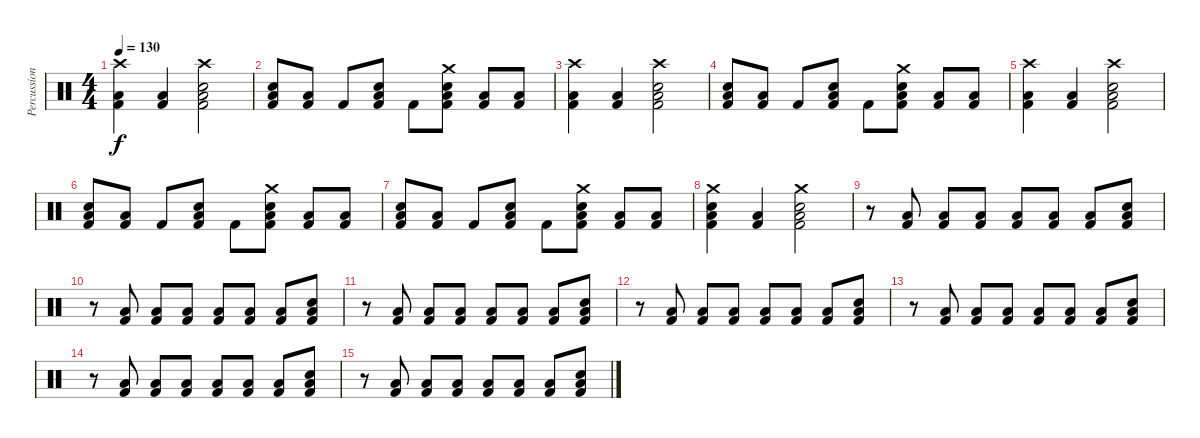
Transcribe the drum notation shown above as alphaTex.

\track ("Percussion" "Percussion") {instrument percussion}
\staff {score}
\articulation defaults
\ts (4 4)
\tempo 130
\clef neutral
\ks c
("Crash high (hit)" "Low Tom (hit)" "Kick (hit) 2").4{dy f} ("Low Tom (hit)" "Kick (hit) 2").4 ("Crash high (hit)" "Electric Snare (hit)" "Low Tom (hit)" "Kick (hit) 2").2 |
("Electric Snare (hit)" "Low Tom (hit)" "Kick (hit) 2").8 ("Low Tom (hit)" "Kick (hit) 2").8 "Kick (hit) 2".8 ("Electric Snare (hit)" "Low Tom (hit)" "Kick (hit) 2").8 "Kick (hit) 2".8 ("Crash medium (hit)" "Electric Snare (hit)" "Low Tom (hit)" "Kick (hit) 2").8 ("Low Tom (hit)" "Kick (hit) 2").8 ("Low Tom (hit)" "Kick (hit) 2").8 |
("Crash high (hit)" "Low Tom (hit)" "Kick (hit) 2").4 ("Low Tom (hit)" "Kick (hit) 2").4 ("Crash high (hit)" "Electric Snare (hit)" "Low Tom (hit)" "Kick (hit) 2").2 |
("Electric Snare (hit)" "Low Tom (hit)" "Kick (hit) 2").8 ("Low Tom (hit)" "Kick (hit) 2").8 "Kick (hit) 2".8 ("Electric Snare (hit)" "Low Tom (hit)" "Kick (hit) 2").8 "Kick (hit) 2".8 ("Crash medium (hit)" "Electric Snare (hit)" "Low Tom (hit)" "Kick (hit) 2").8 ("Low Tom (hit)" "Kick (hit) 2").8 ("Low Tom (hit)" "Kick (hit) 2").8 |
("Crash high (hit)" "Low Tom (hit)" "Kick (hit) 2").4 ("Low Tom (hit)" "Kick (hit) 2").4 ("Crash high (hit)" "Electric Snare (hit)" "Low Tom (hit)" "Kick (hit) 2").2 |
("Electric Snare (hit)" "Low Tom (hit)" "Kick (hit) 2").8 ("Low Tom (hit)" "Kick (hit) 2").8 "Kick (hit) 2".8 ("Electric Snare (hit)" "Low Tom (hit)" "Kick (hit) 2").8 "Kick (hit) 2".8 ("Crash medium (hit)" "Electric Snare (hit)" "Low Tom (hit)" "Kick (hit) 2").8 ("Low Tom (hit)" "Kick (hit) 2").8 ("Low Tom (hit)" "Kick (hit) 2").8 |
("Electric Snare (hit)" "Low Tom (hit)" "Kick (hit) 2").8 ("Low Tom (hit)" "Kick (hit) 2").8 "Kick (hit) 2".8 ("Electric Snare (hit)" "Low Tom (hit)" "Kick (hit) 2").8 "Kick (hit) 2".8 ("Crash medium (hit)" "Electric Snare (hit)" "Low Tom (hit)" "Kick (hit) 2").8 ("Low Tom (hit)" "Kick (hit) 2").8 ("Low Tom (hit)" "Kick (hit) 2").8 |
("Crash medium (hit)" "Electric Snare (hit)" "Low Tom (hit)" "Kick (hit) 2").4 ("Low Tom (hit)" "Kick (hit) 2").4 ("Crash medium (hit)" "Electric Snare (hit)" "Low Tom (hit)" "Kick (hit) 2").2 |
r.8 ("Low Tom (hit)" "Kick (hit) 2").8 ("Low Tom (hit)" "Kick (hit) 2").8 ("Low Tom (hit)" "Kick (hit) 2").8 ("Low Tom (hit)" "Kick (hit) 2").8 ("Low Tom (hit)" "Kick (hit) 2").8 ("Low Tom (hit)" "Kick (hit) 2").8 ("Snare (hit) 2" "Low Tom (hit)" "Kick (hit) 2").8 |
r.8 ("Low Tom (hit)" "Kick (hit) 2").8 ("Low Tom (hit)" "Kick (hit) 2").8 ("Low Tom (hit)" "Kick (hit) 2").8 ("Low Tom (hit)" "Kick (hit) 2").8 ("Low Tom (hit)" "Kick (hit) 2").8 ("Low Tom (hit)" "Kick (hit) 2").8 ("Snare (hit) 2" "Low Tom (hit)" "Kick (hit) 2").8 |
r.8 ("Low Tom (hit)" "Kick (hit) 2").8 ("Low Tom (hit)" "Kick (hit) 2").8 ("Low Tom (hit)" "Kick (hit) 2").8 ("Low Tom (hit)" "Kick (hit) 2").8 ("Low Tom (hit)" "Kick (hit) 2").8 ("Low Tom (hit)" "Kick (hit) 2").8 ("Snare (hit) 2" "Low Tom (hit)" "Kick (hit) 2").8 |
r.8 ("Low Tom (hit)" "Kick (hit) 2").8 ("Low Tom (hit)" "Kick (hit) 2").8 ("Low Tom (hit)" "Kick (hit) 2").8 ("Low Tom (hit)" "Kick (hit) 2").8 ("Low Tom (hit)" "Kick (hit) 2").8 ("Low Tom (hit)" "Kick (hit) 2").8 ("Snare (hit) 2" "Low Tom (hit)" "Kick (hit) 2").8 |
r.8 ("Low Tom (hit)" "Kick (hit) 2").8 ("Low Tom (hit)" "Kick (hit) 2").8 ("Low Tom (hit)" "Kick (hit) 2").8 ("Low Tom (hit)" "Kick (hit) 2").8 ("Low Tom (hit)" "Kick (hit) 2").8 ("Low Tom (hit)" "Kick (hit) 2").8 ("Snare (hit) 2" "Low Tom (hit)" "Kick (hit) 2").8 |
r.8 ("Low Tom (hit)" "Kick (hit) 2").8 ("Low Tom (hit)" "Kick (hit) 2").8 ("Low Tom (hit)" "Kick (hit) 2").8 ("Low Tom (hit)" "Kick (hit) 2").8 ("Low Tom (hit)" "Kick (hit) 2").8 ("Low Tom (hit)" "Kick (hit) 2").8 ("Snare (hit) 2" "Low Tom (hit)" "Kick (hit) 2").8 |
r.8 ("Low Tom (hit)" "Kick (hit) 2").8 ("Low Tom (hit)" "Kick (hit) 2").8 ("Low Tom (hit)" "Kick (hit) 2").8 ("Low Tom (hit)" "Kick (hit) 2").8 ("Low Tom (hit)" "Kick (hit) 2").8 ("Low Tom (hit)" "Kick (hit) 2").8 ("Snare (hit) 2" "Low Tom (hit)" "Kick (hit) 2").8
